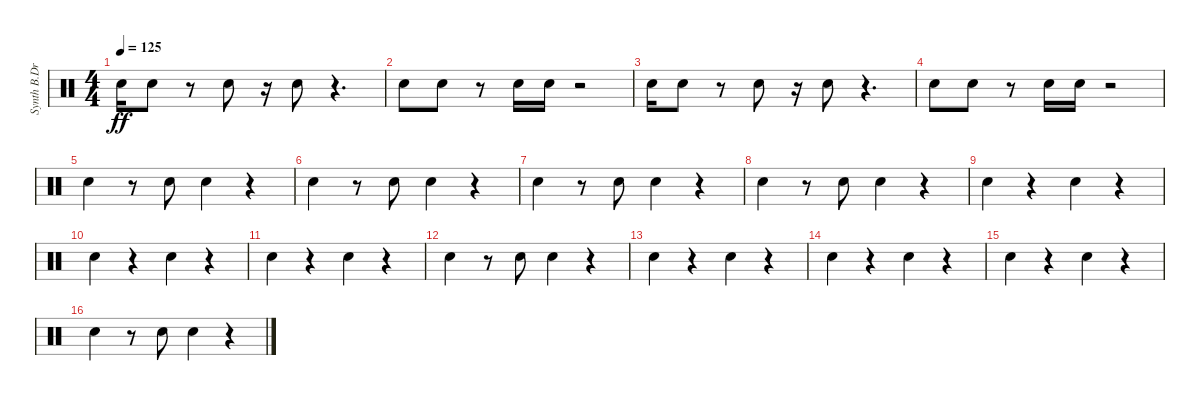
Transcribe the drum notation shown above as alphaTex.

\track ("Synth B.Drum" "Synth B.Dr") {instrument percussion}
\staff {score}
\articulation defaults
\ts (4 4)
\tempo 125
\clef neutral
\ks c "Snare (hit)".16{dy ff} "Snare (hit)".8
r.8 "Snare (hit)".8 r.16 "Snare (hit)".8 r.4{d} |
"Snare (hit)".8 "Snare (hit)".8 r.8 "Snare (hit)".16 "Snare (hit)".16 r.2 |
"Snare (hit)".16 "Snare (hit)".8 r.8 "Snare (hit)".8 r.16 "Snare (hit)".8 r.4{d} |
"Snare (hit)".8 "Snare (hit)".8 r.8 "Snare (hit)".16 "Snare (hit)".16 r.2 |
"Snare (hit)".4 r.8 "Snare (hit)".8 "Snare (hit)".4 r.4 |
"Snare (hit)".4 r.8 "Snare (hit)".8 "Snare (hit)".4 r.4 |
"Snare (hit)".4 r.8 "Snare (hit)".8 "Snare (hit)".4 r.4 |
"Snare (hit)".4 r.8 "Snare (hit)".8 "Snare (hit)".4 r.4 |
"Snare (hit)".4 r.4 "Snare (hit)".4 r.4 |
"Snare (hit)".4 r.4 "Snare (hit)".4 r.4 |
"Snare (hit)".4 r.4 "Snare (hit)".4 r.4 |
"Snare (hit)".4 r.8 "Snare (hit)".8 "Snare (hit)".4 r.4 |
"Snare (hit)".4 r.4 "Snare (hit)".4 r.4 |
"Snare (hit)".4 r.4 "Snare (hit)".4 r.4 |
"Snare (hit)".4 r.4 "Snare (hit)".4 r.4 |
"Snare (hit)".4 r.8 "Snare (hit)".8 "Snare (hit)".4 r.4
